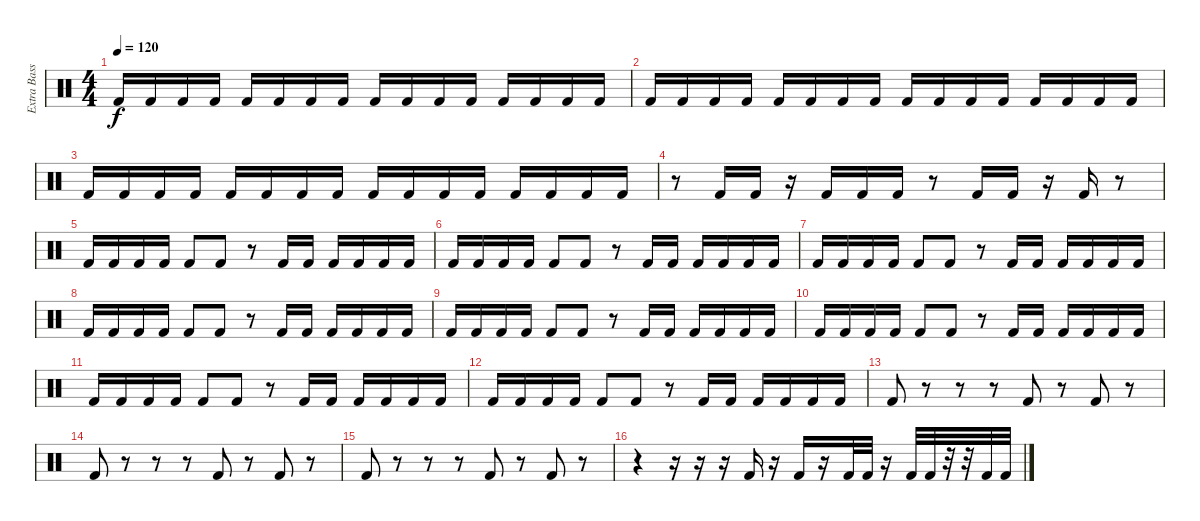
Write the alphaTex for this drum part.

\track ("Extra Bass Drum" "Extra Bass") {instrument percussion}
\staff {score}
\articulation defaults
\ts (4 4)
\tempo 120
\clef neutral
\ks c "Kick (hit) 2".16{dy f} "Kick (hit) 2".16 "Kick (hit) 2".16 "Kick (hit) 2".16 "Kick (hit) 2".16 "Kick (hit) 2".16 "Kick (hit) 2".16 "Kick (hit) 2".16 "Kick (hit) 2".16 "Kick (hit) 2".16 "Kick (hit) 2".16 "Kick (hit) 2".16 "Kick (hit) 2".16 "Kick (hit) 2".16 "Kick (hit) 2".16 "Kick (hit) 2".16
|
"Kick (hit) 2".16 "Kick (hit) 2".16 "Kick (hit) 2".16 "Kick (hit) 2".16 "Kick (hit) 2".16 "Kick (hit) 2".16 "Kick (hit) 2".16 "Kick (hit) 2".16 "Kick (hit) 2".16 "Kick (hit) 2".16 "Kick (hit) 2".16 "Kick (hit) 2".16 "Kick (hit) 2".16 "Kick (hit) 2".16 "Kick (hit) 2".16 "Kick (hit) 2".16 |
"Kick (hit) 2".16 "Kick (hit) 2".16 "Kick (hit) 2".16 "Kick (hit) 2".16 "Kick (hit) 2".16 "Kick (hit) 2".16 "Kick (hit) 2".16 "Kick (hit) 2".16 "Kick (hit) 2".16 "Kick (hit) 2".16 "Kick (hit) 2".16 "Kick (hit) 2".16 "Kick (hit) 2".16 "Kick (hit) 2".16 "Kick (hit) 2".16 "Kick (hit) 2".16 |
r.8 "Kick (hit) 2".16 "Kick (hit) 2".16 r.16 "Kick (hit) 2".16 "Kick (hit) 2".16 "Kick (hit) 2".16 r.8 "Kick (hit) 2".16 "Kick (hit) 2".16 r.16 "Kick (hit) 2".16 r.8 |
"Kick (hit) 2".16 "Kick (hit) 2".16 "Kick (hit) 2".16 "Kick (hit) 2".16 "Kick (hit) 2".8 "Kick (hit) 2".8 r.8 "Kick (hit) 2".16 "Kick (hit) 2".16 "Kick (hit) 2".16 "Kick (hit) 2".16 "Kick (hit) 2".16 "Kick (hit) 2".16 |
"Kick (hit) 2".16 "Kick (hit) 2".16 "Kick (hit) 2".16 "Kick (hit) 2".16 "Kick (hit) 2".8 "Kick (hit) 2".8 r.8 "Kick (hit) 2".16 "Kick (hit) 2".16 "Kick (hit) 2".16 "Kick (hit) 2".16 "Kick (hit) 2".16 "Kick (hit) 2".16 |
"Kick (hit) 2".16 "Kick (hit) 2".16 "Kick (hit) 2".16 "Kick (hit) 2".16 "Kick (hit) 2".8 "Kick (hit) 2".8 r.8 "Kick (hit) 2".16 "Kick (hit) 2".16 "Kick (hit) 2".16 "Kick (hit) 2".16 "Kick (hit) 2".16 "Kick (hit) 2".16 |
"Kick (hit) 2".16 "Kick (hit) 2".16 "Kick (hit) 2".16 "Kick (hit) 2".16 "Kick (hit) 2".8 "Kick (hit) 2".8 r.8 "Kick (hit) 2".16 "Kick (hit) 2".16 "Kick (hit) 2".16 "Kick (hit) 2".16 "Kick (hit) 2".16 "Kick (hit) 2".16 |
"Kick (hit) 2".16 "Kick (hit) 2".16 "Kick (hit) 2".16 "Kick (hit) 2".16 "Kick (hit) 2".8 "Kick (hit) 2".8 r.8 "Kick (hit) 2".16 "Kick (hit) 2".16 "Kick (hit) 2".16 "Kick (hit) 2".16 "Kick (hit) 2".16 "Kick (hit) 2".16 |
"Kick (hit) 2".16 "Kick (hit) 2".16 "Kick (hit) 2".16 "Kick (hit) 2".16 "Kick (hit) 2".8 "Kick (hit) 2".8 r.8 "Kick (hit) 2".16 "Kick (hit) 2".16 "Kick (hit) 2".16 "Kick (hit) 2".16 "Kick (hit) 2".16 "Kick (hit) 2".16 |
"Kick (hit) 2".16 "Kick (hit) 2".16 "Kick (hit) 2".16 "Kick (hit) 2".16 "Kick (hit) 2".8 "Kick (hit) 2".8 r.8 "Kick (hit) 2".16 "Kick (hit) 2".16 "Kick (hit) 2".16 "Kick (hit) 2".16 "Kick (hit) 2".16 "Kick (hit) 2".16 |
"Kick (hit) 2".16 "Kick (hit) 2".16 "Kick (hit) 2".16 "Kick (hit) 2".16 "Kick (hit) 2".8 "Kick (hit) 2".8 r.8 "Kick (hit) 2".16 "Kick (hit) 2".16 "Kick (hit) 2".16 "Kick (hit) 2".16 "Kick (hit) 2".16 "Kick (hit) 2".16 |
"Kick (hit) 2".8 r.8 r.8 r.8 "Kick (hit) 2".8 r.8 "Kick (hit) 2".8 r.8 |
"Kick (hit) 2".8 r.8 r.8 r.8 "Kick (hit) 2".8 r.8 "Kick (hit) 2".8 r.8 |
"Kick (hit) 2".8 r.8 r.8 r.8 "Kick (hit) 2".8 r.8 "Kick (hit) 2".8 r.8 |
r.4 r.16 r.16 r.16 "Kick (hit) 2".16 r.16 "Kick (hit) 2".16 r.16 "Kick (hit) 2".32 "Kick (hit) 2".32 r.16 "Kick (hit) 2".32 "Kick (hit) 2".32 r.32 r.32 "Kick (hit) 2".32 "Kick (hit) 2".32
